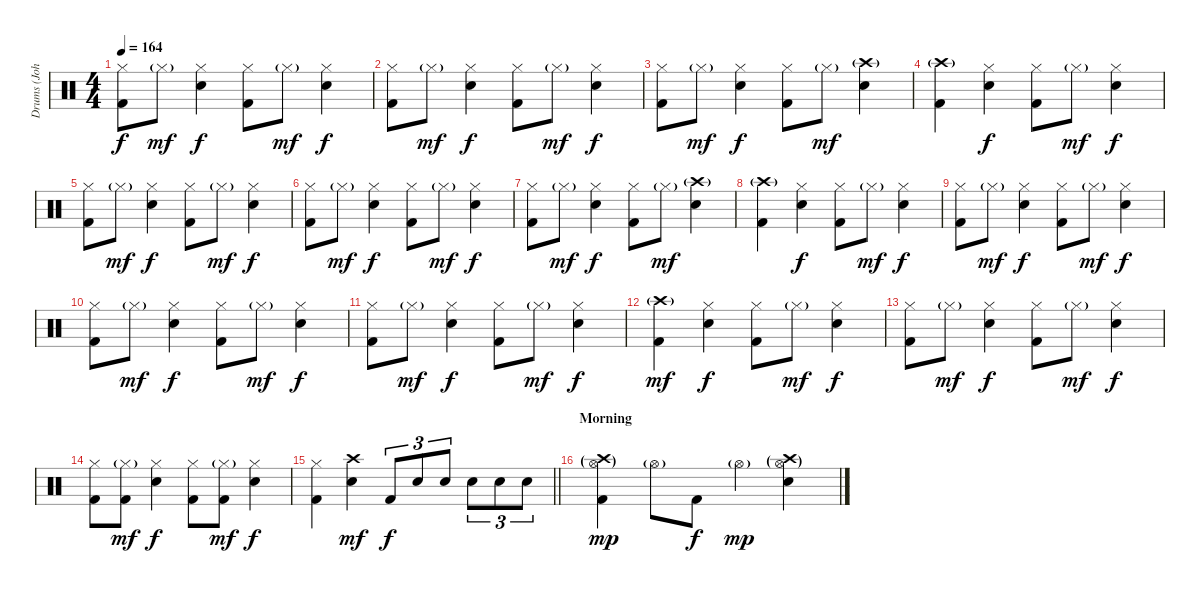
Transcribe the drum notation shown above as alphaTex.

\track ("Drums (John O'Reilly)" "Drums (Joh") {instrument percussion}
\staff {score}
\articulation defaults
\ts (4 4)
\tempo 164
\clef neutral
\ks c
("Hi-Hat (closed)" "Kick (hit) 2").8{dy f} "Hi-Hat (closed)"{g}.8{dy mf} ("Hi-Hat (closed)" "Electric Snare (hit)").4{dy f} ("Hi-Hat (closed)" "Kick (hit) 2").8 "Hi-Hat (closed)"{g}.8{dy mf} ("Hi-Hat (closed)" "Electric Snare (hit)").4{dy f} |
("Hi-Hat (closed)" "Kick (hit) 2").8 "Hi-Hat (closed)"{g}.8{dy mf} ("Hi-Hat (closed)" "Electric Snare (hit)").4{dy f} ("Hi-Hat (closed)" "Kick (hit) 2").8 "Hi-Hat (closed)"{g}.8{dy mf} ("Hi-Hat (closed)" "Electric Snare (hit)").4{dy f} |
("Hi-Hat (closed)" "Kick (hit) 2").8 "Hi-Hat (closed)"{g}.8{dy mf} ("Hi-Hat (closed)" "Electric Snare (hit)").4{dy f} ("Hi-Hat (closed)" "Kick (hit) 2").8 "Hi-Hat (closed)"{g}.8{dy mf} ("Crash high (hit)"{g} "Electric Snare (hit)").4 |
("Crash high (hit)"{g} "Kick (hit) 2").4 ("Hi-Hat (closed)" "Electric Snare (hit)").4{dy f} ("Hi-Hat (closed)" "Kick (hit) 2").8 "Hi-Hat (closed)"{g}.8{dy mf} ("Hi-Hat (closed)" "Electric Snare (hit)").4{dy f} |
("Hi-Hat (closed)" "Kick (hit) 2").8 "Hi-Hat (closed)"{g}.8{dy mf} ("Hi-Hat (closed)" "Electric Snare (hit)").4{dy f} ("Hi-Hat (closed)" "Kick (hit) 2").8 "Hi-Hat (closed)"{g}.8{dy mf} ("Hi-Hat (closed)" "Electric Snare (hit)").4{dy f} |
("Hi-Hat (closed)" "Kick (hit) 2").8 "Hi-Hat (closed)"{g}.8{dy mf} ("Hi-Hat (closed)" "Electric Snare (hit)").4{dy f} ("Hi-Hat (closed)" "Kick (hit) 2").8 "Hi-Hat (closed)"{g}.8{dy mf} ("Hi-Hat (closed)" "Electric Snare (hit)").4{dy f} |
("Hi-Hat (closed)" "Kick (hit) 2").8 "Hi-Hat (closed)"{g}.8{dy mf} ("Hi-Hat (closed)" "Electric Snare (hit)").4{dy f} ("Hi-Hat (closed)" "Kick (hit) 2").8 "Hi-Hat (closed)"{g}.8{dy mf} ("Crash high (hit)"{g} "Electric Snare (hit)").4 |
("Crash high (hit)"{g} "Kick (hit) 2").4 ("Hi-Hat (closed)" "Electric Snare (hit)").4{dy f} ("Hi-Hat (closed)" "Kick (hit) 2").8 "Hi-Hat (closed)"{g}.8{dy mf} ("Hi-Hat (closed)" "Electric Snare (hit)").4{dy f} |
("Hi-Hat (closed)" "Kick (hit) 2").8 "Hi-Hat (closed)"{g}.8{dy mf} ("Hi-Hat (closed)" "Electric Snare (hit)").4{dy f} ("Hi-Hat (closed)" "Kick (hit) 2").8 "Hi-Hat (closed)"{g}.8{dy mf} ("Hi-Hat (closed)" "Electric Snare (hit)").4{dy f} |
("Hi-Hat (closed)" "Kick (hit) 2").8 "Hi-Hat (closed)"{g}.8{dy mf} ("Hi-Hat (closed)" "Electric Snare (hit)").4{dy f} ("Hi-Hat (closed)" "Kick (hit) 2").8 "Hi-Hat (closed)"{g}.8{dy mf} ("Hi-Hat (closed)" "Electric Snare (hit)").4{dy f} |
("Hi-Hat (closed)" "Kick (hit) 2").8 "Hi-Hat (closed)"{g}.8{dy mf} ("Hi-Hat (closed)" "Electric Snare (hit)").4{dy f} ("Hi-Hat (closed)" "Kick (hit) 2").8 "Hi-Hat (closed)"{g}.8{dy mf} ("Hi-Hat (closed)" "Electric Snare (hit)").4{dy f} |
("Crash high (hit)"{g} "Kick (hit) 2").4{dy mf} ("Hi-Hat (closed)" "Electric Snare (hit)").4{dy f} ("Hi-Hat (closed)" "Kick (hit) 2").8 "Hi-Hat (closed)"{g}.8{dy mf} ("Hi-Hat (closed)" "Electric Snare (hit)").4{dy f} |
("Hi-Hat (closed)" "Kick (hit) 2").8 "Hi-Hat (closed)"{g}.8{dy mf} ("Hi-Hat (closed)" "Electric Snare (hit)").4{dy f} ("Hi-Hat (closed)" "Kick (hit) 2").8 "Hi-Hat (closed)"{g}.8{dy mf} ("Hi-Hat (closed)" "Electric Snare (hit)").4{dy f} |
("Hi-Hat (closed)" "Kick (hit) 2").8 ("Hi-Hat (closed)"{g} "Kick (hit) 2").8{dy mf} ("Hi-Hat (closed)" "Electric Snare (hit)").4{dy f} ("Hi-Hat (closed)" "Kick (hit) 2").8 ("Hi-Hat (closed)"{g} "Kick (hit) 2").8{dy mf} ("Hi-Hat (closed)" "Electric Snare (hit)").4{dy f} |
\barLineRight lightlight
("Hi-Hat (closed)" "Kick (hit) 2").4 ("Crash high (hit)" "Electric Snare (hit)").4{dy mf} "Kick (hit) 2".8{tu (3 2) dy f} "Electric Snare (hit)".8{tu (3 2)} "Electric Snare (hit)".8{tu (3 2)} "Electric Snare (hit)".8{tu (3 2)} "Electric Snare (hit)".8{tu (3 2)} "Electric Snare (hit)".8{tu (3 2)} |
\section ("" "Morning")
("Crash high (hit)"{g} "Hi-Hat (open)"{g} "Kick (hit) 2").4{dy mp} "Hi-Hat (open)"{g}.8 "Kick (hit) 2".8{dy f} "Hi-Hat (open)"{g}.4{dy mp} ("Crash high (hit)"{g} "Hi-Hat (open)"{g} "Electric Snare (hit)").4
